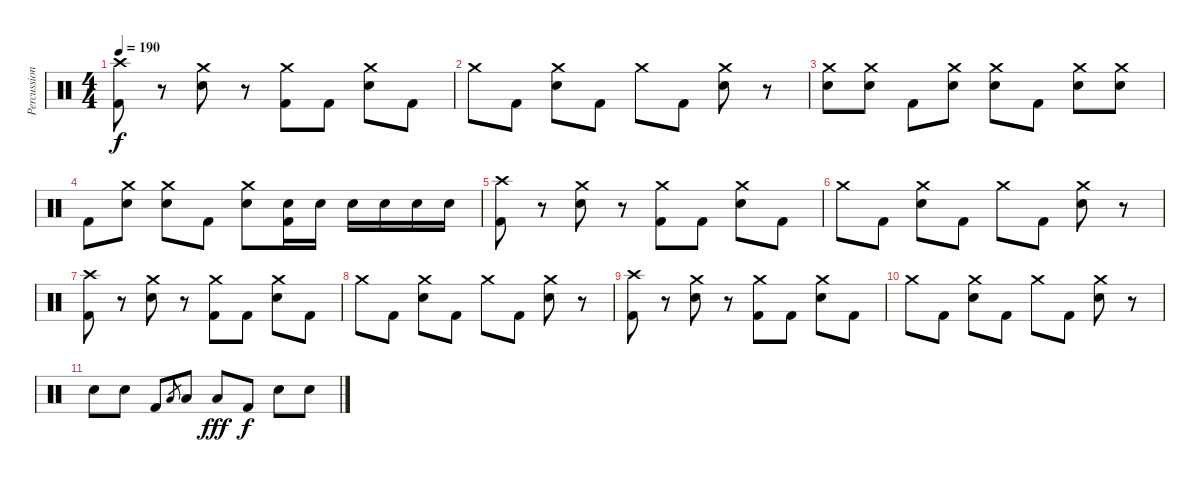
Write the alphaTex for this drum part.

\track ("Percussion" "Percussion") {instrument percussion}
\staff {score}
\articulation defaults
\ts (4 4)
\tempo 190
\clef neutral
\ks c
("Crash high (hit)" "Kick (hit) 2").8{dy f} r.8 ("Crash medium (hit)" "Electric Snare (hit)").8 r.8 ("Crash medium (hit)" "Kick (hit) 2").8 "Kick (hit) 2".8 ("Crash medium (hit)" "Electric Snare (hit)").8 "Kick (hit) 2".8 |
"Crash medium (hit)".8 "Kick (hit) 2".8 ("Crash medium (hit)" "Electric Snare (hit)").8 "Kick (hit) 2".8 "Crash medium (hit)".8 "Kick (hit) 2".8 ("Crash medium (hit)" "Electric Snare (hit)").8 r.8 |
("Crash medium (hit)" "Electric Snare (hit)").8 ("Crash medium (hit)" "Electric Snare (hit)").8 "Kick (hit) 2".8 ("Crash medium (hit)" "Electric Snare (hit)").8 ("Crash medium (hit)" "Electric Snare (hit)").8 "Kick (hit) 2".8 ("Crash medium (hit)" "Electric Snare (hit)").8 ("Crash medium (hit)" "Electric Snare (hit)").8 |
"Kick (hit) 2".8 ("Crash medium (hit)" "Electric Snare (hit)").8 ("Crash medium (hit)" "Electric Snare (hit)").8 "Kick (hit) 2".8 ("Crash medium (hit)" "Electric Snare (hit)").8 ("Electric Snare (hit)" "Kick (hit) 2").16 "Electric Snare (hit)".16 "Electric Snare (hit)".16 "Electric Snare (hit)".16 "Electric Snare (hit)".16 "Electric Snare (hit)".16 |
("Crash high (hit)" "Kick (hit) 2").8 r.8 ("Crash medium (hit)" "Electric Snare (hit)").8 r.8 ("Crash medium (hit)" "Kick (hit) 2").8 "Kick (hit) 2".8 ("Crash medium (hit)" "Electric Snare (hit)").8 "Kick (hit) 2".8 |
"Crash medium (hit)".8 "Kick (hit) 2".8 ("Crash medium (hit)" "Electric Snare (hit)").8 "Kick (hit) 2".8 "Crash medium (hit)".8 "Kick (hit) 2".8 ("Crash medium (hit)" "Electric Snare (hit)").8 r.8 |
("Crash high (hit)" "Kick (hit) 2").8 r.8 ("Crash medium (hit)" "Electric Snare (hit)").8 r.8 ("Crash medium (hit)" "Kick (hit) 2").8 "Kick (hit) 2".8 ("Crash medium (hit)" "Electric Snare (hit)").8 "Kick (hit) 2".8 |
"Crash medium (hit)".8 "Kick (hit) 2".8 ("Crash medium (hit)" "Electric Snare (hit)").8 "Kick (hit) 2".8 "Crash medium (hit)".8 "Kick (hit) 2".8 ("Crash medium (hit)" "Electric Snare (hit)").8 r.8 |
("Crash high (hit)" "Kick (hit) 2").8 r.8 ("Crash medium (hit)" "Electric Snare (hit)").8 r.8 ("Crash medium (hit)" "Kick (hit) 2").8 "Kick (hit) 2".8 ("Crash medium (hit)" "Electric Snare (hit)").8 "Kick (hit) 2".8 |
"Crash medium (hit)".8 "Kick (hit) 2".8 ("Crash medium (hit)" "Electric Snare (hit)").8 "Kick (hit) 2".8 "Crash medium (hit)".8 "Kick (hit) 2".8 ("Crash medium (hit)" "Electric Snare (hit)").8 r.8 |
"Electric Snare (hit)".8 "Electric Snare (hit)".8 "Kick (hit) 2".8 "Low Tom (hit)".8{gr} "Low Tom (hit)".8 "Low Tom (hit)".8{dy fff} "Kick (hit) 2".8{dy f} "Electric Snare (hit)".8 "Electric Snare (hit)".8
